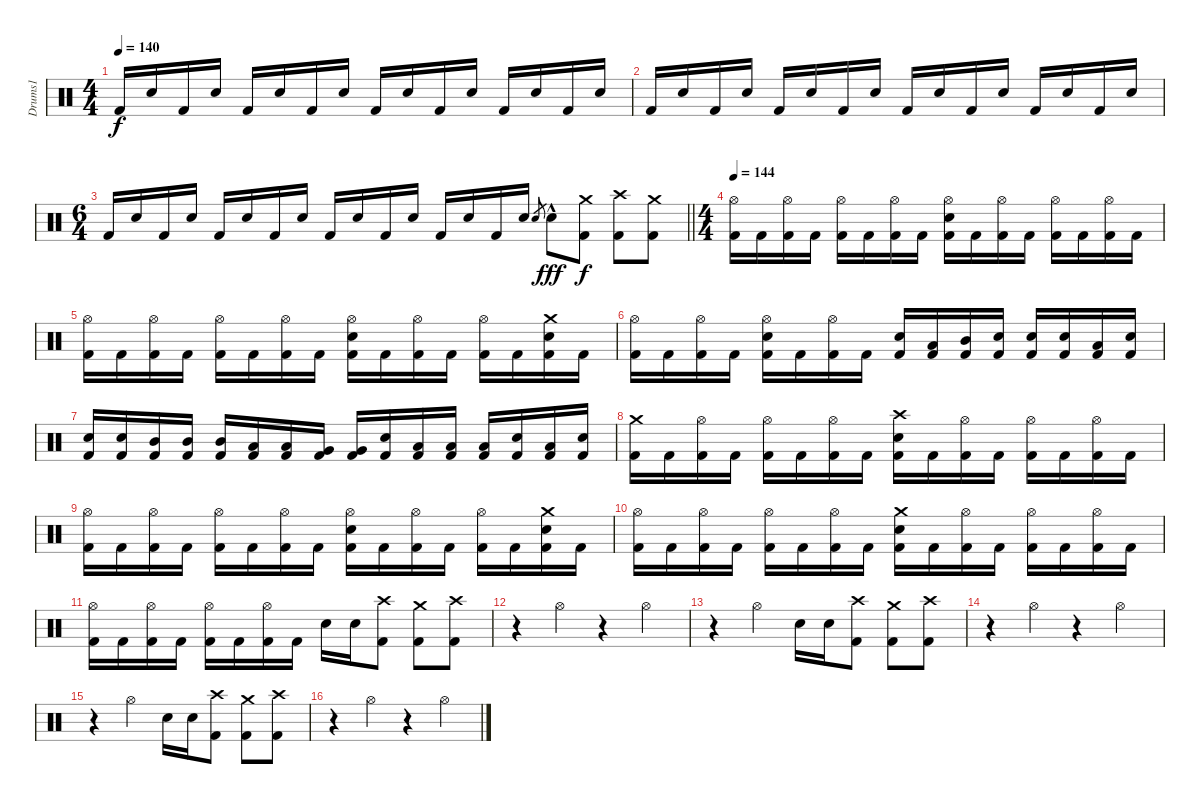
\track ("Drums1" "Drums1") {instrument percussion}
\staff {score}
\articulation defaults
\ts (4 4)
\tempo 140
\clef neutral
\ks c "Kick (hit) 2".16{dy f} "Electric Snare (hit)".16 "Kick (hit) 2".16 "Electric Snare (hit)".16 "Kick (hit) 2".16 "Electric Snare (hit)".16 "Kick (hit) 2".16 "Electric Snare (hit)".16 "Kick (hit) 2".16 "Electric Snare (hit)".16 "Kick (hit) 2".16 "Electric Snare (hit)".16 "Kick (hit) 2".16 "Electric Snare (hit)".16 "Kick (hit) 2".16 "Electric Snare (hit)".16
|
"Kick (hit) 2".16 "Electric Snare (hit)".16 "Kick (hit) 2".16 "Electric Snare (hit)".16 "Kick (hit) 2".16 "Electric Snare (hit)".16 "Kick (hit) 2".16 "Electric Snare (hit)".16 "Kick (hit) 2".16 "Electric Snare (hit)".16 "Kick (hit) 2".16 "Electric Snare (hit)".16 "Kick (hit) 2".16 "Electric Snare (hit)".16 "Kick (hit) 2".16 "Electric Snare (hit)".16 |
\ts (6 4)
\barLineRight lightlight "Kick (hit) 2".16 "Electric Snare (hit)".16 "Kick (hit) 2".16 "Electric Snare (hit)".16 "Kick (hit) 2".16 "Electric Snare (hit)".16 "Kick (hit) 2".16 "Electric Snare (hit)".16 "Kick (hit) 2".16 "Electric Snare (hit)".16 "Kick (hit) 2".16 "Electric Snare (hit)".16 "Kick (hit) 2".16 "Electric Snare (hit)".16 "Kick (hit) 2".16 "Electric Snare (hit)".16 "Electric Snare (hit)".8{gr} "Electric Snare (hit)"{hac}.8{dy fff}
("Crash medium (hit)" "Kick (hit) 2").8{dy f} ("Crash high (hit)" "Kick (hit) 2").8 ("Crash medium (hit)" "Kick (hit) 2").8 |
\ts (4 4)
\tempo 144
("Hi-Hat (open)" "Kick (hit) 2").16 "Kick (hit) 2".16 ("Hi-Hat (open)" "Kick (hit) 2").16 "Kick (hit) 2".16 ("Hi-Hat (open)" "Kick (hit) 2").16 "Kick (hit) 2".16 ("Hi-Hat (open)" "Kick (hit) 2").16 "Kick (hit) 2".16 ("Hi-Hat (open)" "Electric Snare (hit)" "Kick (hit) 2").16 "Kick (hit) 2".16 ("Hi-Hat (open)" "Kick (hit) 2").16 "Kick (hit) 2".16 ("Hi-Hat (open)" "Kick (hit) 2").16 "Kick (hit) 2".16 ("Hi-Hat (open)" "Kick (hit) 2").16 "Kick (hit) 2".16 |
("Hi-Hat (open)" "Kick (hit) 2").16 "Kick (hit) 2".16 ("Hi-Hat (open)" "Kick (hit) 2").16 "Kick (hit) 2".16 ("Hi-Hat (open)" "Kick (hit) 2").16 "Kick (hit) 2".16 ("Hi-Hat (open)" "Kick (hit) 2").16 "Kick (hit) 2".16 ("Hi-Hat (open)" "Electric Snare (hit)" "Kick (hit) 2").16 "Kick (hit) 2".16 ("Hi-Hat (open)" "Kick (hit) 2").16 "Kick (hit) 2".16 ("Hi-Hat (open)" "Kick (hit) 2").16 "Kick (hit) 2".16 ("Crash medium (hit)" "Electric Snare (hit)" "Kick (hit) 2").16 "Kick (hit) 2".16 |
("Hi-Hat (open)" "Kick (hit) 2").16 "Kick (hit) 2".16 ("Hi-Hat (open)" "Kick (hit) 2").16 "Kick (hit) 2".16 ("Hi-Hat (open)" "Electric Snare (hit)" "Kick (hit) 2").16 "Kick (hit) 2".16 ("Hi-Hat (open)" "Kick (hit) 2").16 "Kick (hit) 2".16 ("Electric Snare (hit)" "Kick (hit) 2").16 ("Low Tom (hit)" "Kick (hit) 2").16 ("Mid Tom (hit)" "Kick (hit) 2").16 ("Electric Snare (hit)" "Kick (hit) 2").16 ("Electric Snare (hit)" "Kick (hit) 2").16 ("Electric Snare (hit)" "Kick (hit) 2").16 ("Low Tom (hit)" "Kick (hit) 2").16 ("Electric Snare (hit)" "Kick (hit) 2").16 |
("Electric Snare (hit)" "Kick (hit) 2").16 ("Electric Snare (hit)" "Kick (hit) 2").16 ("Mid Tom (hit)" "Kick (hit) 2").16 ("Mid Tom (hit)" "Kick (hit) 2").16 ("Mid Tom (hit)" "Kick (hit) 2").16 ("Low Tom (hit)" "Kick (hit) 2").16 ("Low Tom (hit)" "Kick (hit) 2").16 ("Very Low Tom (hit)" "Kick (hit) 2").16 ("Very Low Tom (hit)" "Kick (hit) 2").16 ("Electric Snare (hit)" "Kick (hit) 2").16 ("Low Tom (hit)" "Kick (hit) 2").16 ("Low Tom (hit)" "Kick (hit) 2").16 ("Low Floor Tom (hit)" "Kick (hit) 2").16 ("Electric Snare (hit)" "Kick (hit) 2").16 ("Low Tom (hit)" "Kick (hit) 2").16 ("Electric Snare (hit)" "Kick (hit) 2").16 |
("Crash medium (hit)" "Kick (hit) 2").16 "Kick (hit) 2".16 ("Hi-Hat (open)" "Kick (hit) 2").16 "Kick (hit) 2".16 ("Hi-Hat (open)" "Kick (hit) 2").16 "Kick (hit) 2".16 ("Hi-Hat (open)" "Kick (hit) 2").16 "Kick (hit) 2".16 ("Crash high (hit)" "Electric Snare (hit)" "Kick (hit) 2").16 "Kick (hit) 2".16 ("Hi-Hat (open)" "Kick (hit) 2").16 "Kick (hit) 2".16 ("Hi-Hat (open)" "Kick (hit) 2").16 "Kick (hit) 2".16 ("Hi-Hat (open)" "Kick (hit) 2").16 "Kick (hit) 2".16 |
("Hi-Hat (open)" "Kick (hit) 2").16 "Kick (hit) 2".16 ("Hi-Hat (open)" "Kick (hit) 2").16 "Kick (hit) 2".16 ("Hi-Hat (open)" "Kick (hit) 2").16 "Kick (hit) 2".16 ("Hi-Hat (open)" "Kick (hit) 2").16 "Kick (hit) 2".16 ("Hi-Hat (open)" "Electric Snare (hit)" "Kick (hit) 2").16 "Kick (hit) 2".16 ("Hi-Hat (open)" "Kick (hit) 2").16 "Kick (hit) 2".16 ("Hi-Hat (open)" "Kick (hit) 2").16 "Kick (hit) 2".16 ("Crash medium (hit)" "Electric Snare (hit)" "Kick (hit) 2").16 "Kick (hit) 2".16 |
("Hi-Hat (open)" "Kick (hit) 2").16 "Kick (hit) 2".16 ("Hi-Hat (open)" "Kick (hit) 2").16 "Kick (hit) 2".16 ("Hi-Hat (open)" "Kick (hit) 2").16 "Kick (hit) 2".16 ("Hi-Hat (open)" "Kick (hit) 2").16 "Kick (hit) 2".16 ("Crash medium (hit)" "Electric Snare (hit)" "Kick (hit) 2").16 "Kick (hit) 2".16 ("Hi-Hat (open)" "Kick (hit) 2").16 "Kick (hit) 2".16 ("Hi-Hat (open)" "Kick (hit) 2").16 "Kick (hit) 2".16 ("Hi-Hat (open)" "Kick (hit) 2").16 "Kick (hit) 2".16 |
("Hi-Hat (open)" "Kick (hit) 2").16 "Kick (hit) 2".16 ("Hi-Hat (open)" "Kick (hit) 2").16 "Kick (hit) 2".16 ("Hi-Hat (open)" "Kick (hit) 2").16 "Kick (hit) 2".16 ("Hi-Hat (open)" "Kick (hit) 2").16 "Kick (hit) 2".16 "Electric Snare (hit)".16 "Electric Snare (hit)".16 ("Crash high (hit)" "Kick (hit) 2").8 ("Crash medium (hit)" "Kick (hit) 2").8 ("Crash high (hit)" "Kick (hit) 2").8 |
r.4 "Hi-Hat (open)".4 r.4 "Hi-Hat (open)".4 |
r.4 "Hi-Hat (open)".4 "Electric Snare (hit)".16 "Electric Snare (hit)".16 ("Crash high (hit)" "Kick (hit) 2").8 ("Crash medium (hit)" "Kick (hit) 2").8 ("Crash high (hit)" "Kick (hit) 2").8 |
r.4 "Hi-Hat (open)".4 r.4 "Hi-Hat (open)".4 |
r.4 "Hi-Hat (open)".4 "Electric Snare (hit)".16 "Electric Snare (hit)".16 ("Crash high (hit)" "Kick (hit) 2").8 ("Crash medium (hit)" "Kick (hit) 2").8 ("Crash high (hit)" "Kick (hit) 2").8 |
r.4 "Hi-Hat (open)".4 r.4 "Hi-Hat (open)".4
